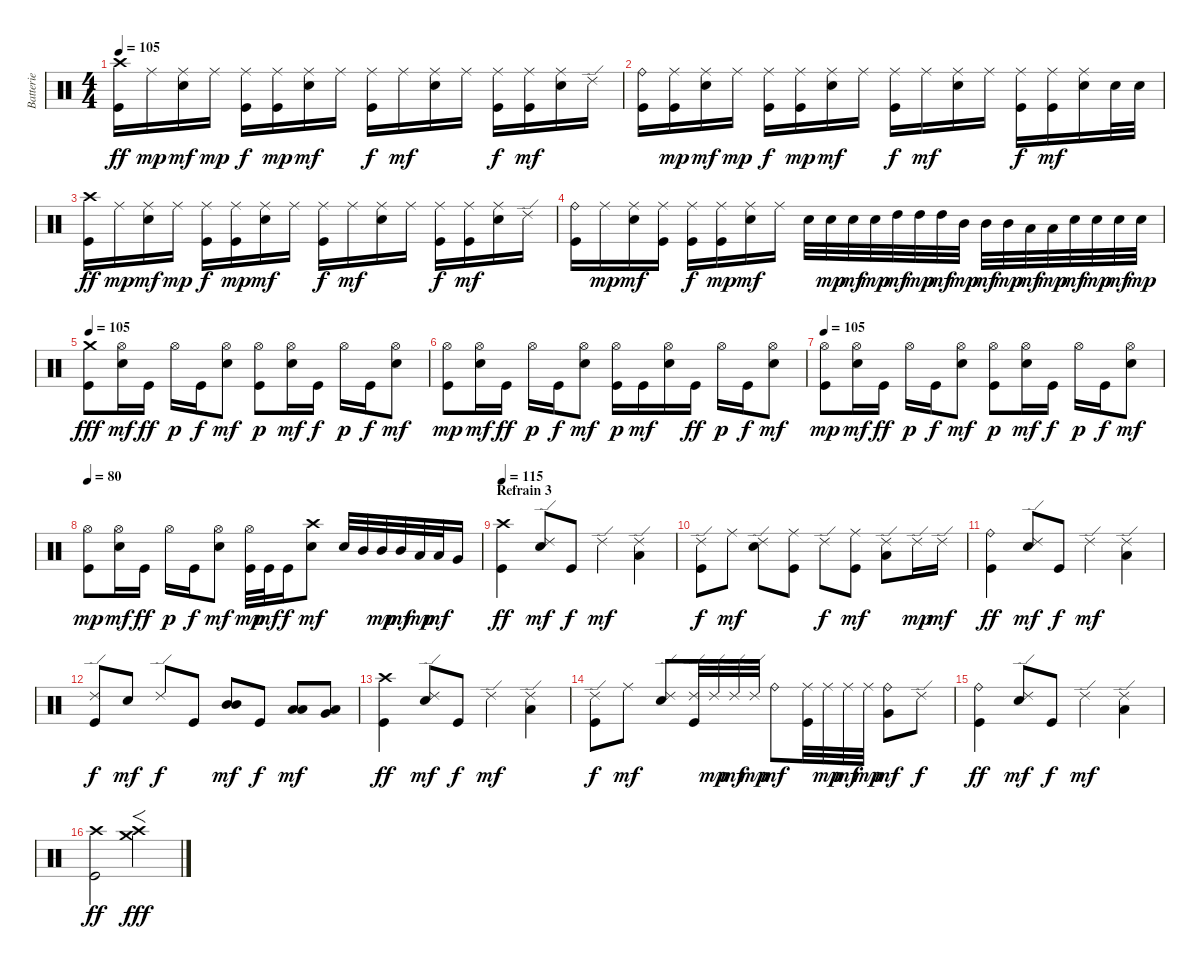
\track ("Batterie" "Batterie") {instrument percussion}
\staff {score}
\articulation defaults
\ts (4 4)
\tempo 105
\clef neutral
\ks c
("Crash high (hit)" "Kick (hit)").16{dy ff} "Ride (middle)".16{dy mp} ("Ride (middle)" "Electric Snare (hit)").16{dy mf} "Ride (middle)".16{dy mp} ("Ride (middle)" "Kick (hit)").16{dy f} ("Ride (middle)" "Kick (hit)").16{dy mp} ("Ride (middle)" "Electric Snare (hit)").16{dy mf} "Ride (middle)".16 ("Ride (middle)" "Kick (hit)").16{dy f} "Ride (middle)".16{dy mf} ("Ride (middle)" "Electric Snare (hit)").16 "Ride (middle)".16 ("Ride (middle)" "Kick (hit)").16{dy f} ("Ride (middle)" "Kick (hit)").16{dy mf} ("Ride (middle)" "Electric Snare (hit)").16 "Ride (edge) 2".16 |
("Ride (bell)" "Kick (hit)").16 ("Ride (middle)" "Kick (hit)").16{dy mp} ("Ride (middle)" "Electric Snare (hit)").16{dy mf} "Ride (middle)".16{dy mp} ("Ride (middle)" "Kick (hit)").16{dy f} ("Ride (middle)" "Kick (hit)").16{dy mp} ("Ride (middle)" "Electric Snare (hit)").16{dy mf} "Ride (middle)".16 ("Ride (middle)" "Kick (hit)").16{dy f} "Ride (middle)".16{dy mf} ("Ride (middle)" "Electric Snare (hit)").16 "Ride (middle)".16 ("Ride (middle)" "Kick (hit)").16{dy f} ("Ride (middle)" "Kick (hit)").16{dy mf} ("Ride (middle)" "Electric Snare (hit)").16 "Electric Snare (hit)".32 "Electric Snare (hit)".32 |
("Crash high (hit)" "Kick (hit)").16{dy ff} "Ride (middle)".16{dy mp} ("Ride (middle)" "Electric Snare (hit)").16{dy mf} "Ride (middle)".16{dy mp} ("Ride (middle)" "Kick (hit)").16{dy f} ("Ride (middle)" "Kick (hit)").16{dy mp} ("Ride (middle)" "Electric Snare (hit)").16{dy mf} "Ride (middle)".16 ("Ride (middle)" "Kick (hit)").16{dy f} "Ride (middle)".16{dy mf} ("Ride (middle)" "Electric Snare (hit)").16 "Ride (middle)".16 ("Ride (middle)" "Kick (hit)").16{dy f} ("Ride (middle)" "Kick (hit)").16{dy mf} ("Ride (middle)" "Electric Snare (hit)").16 "Ride (edge) 2".16 |
("Ride (bell)" "Kick (hit)").16 "Ride (middle)".16{dy mp} ("Ride (middle)" "Electric Snare (hit)").16{dy mf} ("Ride (middle)" "Kick (hit)").16 ("Ride (middle)" "Kick (hit)").16{dy f} ("Ride (middle)" "Kick (hit)").16{dy mp} ("Ride (middle)" "Electric Snare (hit)").16{dy mf} "Ride (middle)".16 "Electric Snare (hit)".32 "Electric Snare (hit)".32{dy mp} "Electric Snare (hit)".32{dy mf} "Electric Snare (hit)".32{dy mp} "High Tom (hit)".32{dy mf} "High Tom (hit)".32{dy mp} "High Tom (hit)".32{dy mf} "Mid Tom (hit)".32{dy mp} "Mid Tom (hit)".32{dy mf} "Mid Tom (hit)".32{dy mp} "Low Tom (hit)".32{dy mf} "Low Tom (hit)".32{dy mp} "Electric Snare (hit)".32{dy mf} "Electric Snare (hit)".32{dy mp} "Electric Snare (hit)".32{dy mf} "Electric Snare (hit)".32{dy mp} |
\tempo 105
("Crash medium (hit)" "Kick (hit)").8{dy fff} ("Hi-Hat (open)" "Electric Snare (hit)").16{dy mf} "Kick (hit)".16{dy ff} "Hi-Hat (open)".16{dy p} "Kick (hit)".16{dy f} ("Hi-Hat (open)" "Electric Snare (hit)").8{dy mf} ("Hi-Hat (open)" "Kick (hit)").8{dy p} ("Hi-Hat (open)" "Electric Snare (hit)").16{dy mf} "Kick (hit)".16{dy f} "Hi-Hat (open)".16{dy p} "Kick (hit)".16{dy f} ("Hi-Hat (open)" "Electric Snare (hit)").8{dy mf} |
("Hi-Hat (open)" "Kick (hit)").8{dy mp} ("Hi-Hat (open)" "Electric Snare (hit)").16{dy mf} "Kick (hit)".16{dy ff} "Hi-Hat (open)".16{dy p} "Kick (hit)".16{dy f} ("Hi-Hat (open)" "Electric Snare (hit)").8{dy mf} ("Hi-Hat (open)" "Kick (hit)").16{dy p} "Kick (hit)".16{dy mf} ("Hi-Hat (open)" "Electric Snare (hit)").16 "Kick (hit)".16{dy ff} "Hi-Hat (open)".16{dy p} "Kick (hit)".16{dy f} ("Hi-Hat (open)" "Electric Snare (hit)").8{dy mf} |
\tempo 105
("Hi-Hat (open)" "Kick (hit)").8{dy mp} ("Hi-Hat (open)" "Electric Snare (hit)").16{dy mf} "Kick (hit)".16{dy ff} "Hi-Hat (open)".16{dy p} "Kick (hit)".16{dy f} ("Hi-Hat (open)" "Electric Snare (hit)").8{dy mf} ("Hi-Hat (open)" "Kick (hit)").8{dy p} ("Hi-Hat (open)" "Electric Snare (hit)").16{dy mf} "Kick (hit)".16{dy f} "Hi-Hat (open)".16{dy p} "Kick (hit)".16{dy f} ("Hi-Hat (open)" "Electric Snare (hit)").8{dy mf} |
\tempo 80
("Hi-Hat (open)" "Kick (hit)").8{dy mp} ("Hi-Hat (open)" "Electric Snare (hit)").16{dy mf} "Kick (hit)".16{dy ff} "Hi-Hat (open)".16{dy p} "Kick (hit)".16{dy f} ("Hi-Hat (open)" "Electric Snare (hit)").8{dy mf} ("Hi-Hat (open)" "Kick (hit)").32{dy mp} "Kick (hit)".32{dy mf} "Kick (hit)".16{dy f} ("Crash high (hit)" "Electric Snare (hit)").8{dy mf} "Electric Snare (hit)".32 "Mid Tom (hit)".32 "Mid Tom (hit)".32{dy mp} "Mid Tom (hit)".32{dy mf} "Low Tom (hit)".32{dy mp} "Low Tom (hit)".32{dy mf} "Very Low Tom (hit)".16 |
\section ("" "Refrain 3")
\tempo 115
("Crash high (hit)" "Kick (hit)").4{dy ff} ("Ride (edge) 2" "Electric Snare (hit)").8{dy mf} "Kick (hit)".8{dy f} "Ride (edge) 2".4{dy mf} ("Ride (edge) 2" "Low Tom (hit)").4 |
("Ride (edge) 2" "Kick (hit)").8{dy f} "Ride (middle)".8{dy mf} ("Ride (edge) 2" "Electric Snare (hit)").8 ("Ride (middle)" "Kick (hit)").8 "Ride (edge) 2".8{dy f} ("Ride (middle)" "Kick (hit)").8{dy mf} ("Ride (edge) 2" "Low Tom (hit)").8 "Ride (edge) 2".16{dy mp} "Ride (edge) 2".16{dy mf} |
("Ride (bell)" "Kick (hit)").4{dy ff} ("Ride (edge) 2" "Electric Snare (hit)").8{dy mf} "Kick (hit)".8{dy f} "Ride (edge) 2".4{dy mf} ("Ride (edge) 2" "Low Tom (hit)").4 |
("Ride (edge) 2" "Kick (hit)").8{dy f} "Electric Snare (hit)".8{dy mf} "Ride (edge) 2".8{dy f} "Kick (hit)".8 ("Mid Tom (hit)" "Mid Tom (hit)").8{bd 120 dy mf} "Kick (hit)".8{dy f} ("Low Tom (hit)" "Low Tom (hit)").8{bd 60 dy mf} ("Low Tom (hit)" "Very Low Tom (hit)").8{bd 60} |
("Crash high (hit)" "Kick (hit)").4{dy ff} ("Ride (edge) 2" "Electric Snare (hit)").8{dy mf} "Kick (hit)".8{dy f} "Ride (edge) 2".4{dy mf} ("Ride (edge) 2" "Low Tom (hit)").4 |
("Ride (edge) 2" "Kick (hit)").8{dy f} "Ride (middle)".8{dy mf} ("Ride (edge) 2" "Electric Snare (hit)").8 ("Ride (edge) 2" "Kick (hit)").32 "Ride (edge) 2".32{dy mp} "Ride (edge) 2".32{dy mf} "Ride (edge) 2".32{dy mp} "Ride (bell)".8{dy mf} ("Ride (middle)" "Kick (hit)").32 "Ride (middle)".32{dy mp} "Ride (middle)".32{dy mf} "Ride (middle)".32{dy mp} ("Ride (bell)" "Very Low Tom (hit)").8{dy mf} "Ride (edge) 2".8{dy f} |
("Ride (bell)" "Kick (hit)").4{dy ff} ("Ride (edge) 2" "Electric Snare (hit)").8{dy mf} "Kick (hit)".8{dy f} "Ride (edge) 2".4{dy mf} ("Ride (edge) 2" "Low Tom (hit)").4 |
("Crash high (hit)" "Kick (hit)").2{dy ff} ("Crash medium (hit)" "Crash high (hit)").2{f dy fff}
